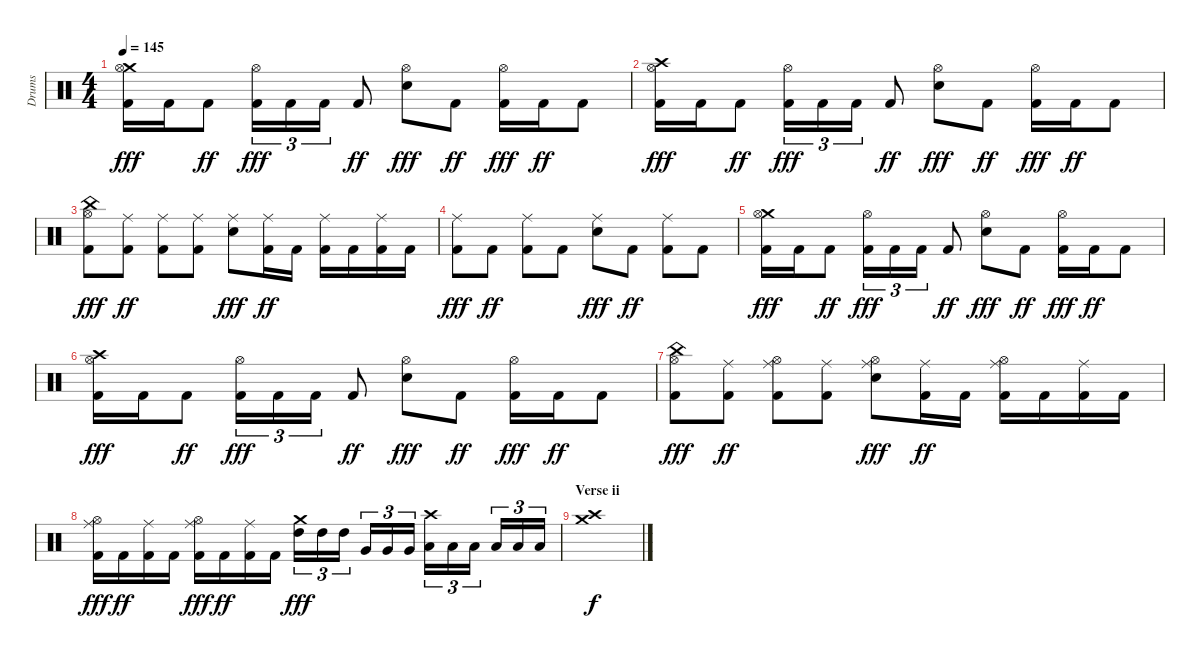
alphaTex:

\track ("Drums" "Drums") {instrument percussion}
\staff {score}
\articulation defaults
\ts (4 4)
\tempo 145
\clef neutral
\ks c
("Crash medium (hit)" "Hi-Hat (open)" "Kick (hit) 2").16{dy fff} "Kick (hit) 2".16 "Kick (hit) 2".8{dy ff} ("Hi-Hat (open)" "Kick (hit) 2").16{tu (3 2) dy fff} "Kick (hit) 2".16{tu (3 2)} "Kick (hit) 2".16{tu (3 2)} "Kick (hit) 2".8{dy ff} ("Hi-Hat (open)" "Snare (hit) 2").8{dy fff} "Kick (hit) 2".8{dy ff} ("Hi-Hat (open)" "Kick (hit) 2").16{dy fff} "Kick (hit) 2".16{dy ff} "Kick (hit) 2".8 |
("Crash high (hit)" "Hi-Hat (open)" "Kick (hit) 2").16{dy fff} "Kick (hit) 2".16 "Kick (hit) 2".8{dy ff} ("Hi-Hat (open)" "Kick (hit) 2").16{tu (3 2) dy fff} "Kick (hit) 2".16{tu (3 2)} "Kick (hit) 2".16{tu (3 2)} "Kick (hit) 2".8{dy ff} ("Hi-Hat (open)" "Snare (hit) 2").8{dy fff} "Kick (hit) 2".8{dy ff} ("Hi-Hat (open)" "Kick (hit) 2").16{dy fff} "Kick (hit) 2".16{dy ff} "Kick (hit) 2".8 |
("China (hit)" "Hi-Hat (open)" "Kick (hit) 2").8{dy fff} ("Ride (middle)" "Kick (hit) 2").8{dy ff} ("Ride (middle)" "Kick (hit) 2").8 ("Ride (middle)" "Kick (hit) 2").8 ("Ride (middle)" "Snare (hit) 2").8{dy fff} ("Ride (middle)" "Kick (hit) 2").16{dy ff} "Kick (hit) 2".16 ("Ride (middle)" "Kick (hit) 2").16 "Kick (hit) 2".16 ("Ride (middle)" "Kick (hit) 2").16 "Kick (hit) 2".16 |
("Ride (middle)" "Kick (hit) 2").8{dy fff} "Kick (hit) 2".8{dy ff} ("Ride (middle)" "Kick (hit) 2").8 "Kick (hit) 2".8 ("Ride (middle)" "Snare (hit) 2").8{dy fff} "Kick (hit) 2".8{dy ff} ("Ride (middle)" "Kick (hit) 2").8 "Kick (hit) 2".8 |
("Crash medium (hit)" "Hi-Hat (open)" "Kick (hit) 2").16{dy fff} "Kick (hit) 2".16 "Kick (hit) 2".8{dy ff} ("Hi-Hat (open)" "Kick (hit) 2").16{tu (3 2) dy fff} "Kick (hit) 2".16{tu (3 2)} "Kick (hit) 2".16{tu (3 2)} "Kick (hit) 2".8{dy ff} ("Hi-Hat (open)" "Snare (hit) 2").8{dy fff} "Kick (hit) 2".8{dy ff} ("Hi-Hat (open)" "Kick (hit) 2").16{dy fff} "Kick (hit) 2".16{dy ff} "Kick (hit) 2".8 |
("Crash high (hit)" "Hi-Hat (open)" "Kick (hit) 2").16{dy fff} "Kick (hit) 2".16 "Kick (hit) 2".8{dy ff} ("Hi-Hat (open)" "Kick (hit) 2").16{tu (3 2) dy fff} "Kick (hit) 2".16{tu (3 2)} "Kick (hit) 2".16{tu (3 2)} "Kick (hit) 2".8{dy ff} ("Hi-Hat (open)" "Snare (hit) 2").8{dy fff} "Kick (hit) 2".8{dy ff} ("Hi-Hat (open)" "Kick (hit) 2").16{dy fff} "Kick (hit) 2".16{dy ff} "Kick (hit) 2".8 |
("China (hit)" "Hi-Hat (open)" "Kick (hit) 2").8{dy fff} ("Ride (middle)" "Kick (hit) 2").8{dy ff} ("Ride (middle)" "Hi-Hat (open)" "Kick (hit) 2").8 ("Ride (middle)" "Kick (hit) 2").8 ("Ride (middle)" "Hi-Hat (open)" "Snare (hit) 2").8{dy fff} ("Ride (middle)" "Kick (hit) 2").16{dy ff} "Kick (hit) 2".16 ("Ride (middle)" "Hi-Hat (open)" "Kick (hit) 2").16 "Kick (hit) 2".16 ("Ride (middle)" "Kick (hit) 2").16 "Kick (hit) 2".16 |
("Ride (middle)" "Hi-Hat (open)" "Kick (hit) 2").16{dy fff} "Kick (hit) 2".16{dy ff} ("Ride (middle)" "Kick (hit) 2").16 "Kick (hit) 2".16 ("Ride (middle)" "Hi-Hat (open)" "Kick (hit) 2").16{dy fff} "Kick (hit) 2".16{dy ff} ("Ride (middle)" "Kick (hit) 2").16 "Kick (hit) 2".16 ("Crash medium (hit)" "High Tom (hit)").16{tu (3 2) dy fff} "High Tom (hit)".16{tu (3 2)} "High Tom (hit)".16{tu (3 2)} "Very Low Tom (hit)".16{tu (3 2)} "Very Low Tom (hit)".16{tu (3 2)} "Very Low Tom (hit)".16{tu (3 2)} ("Crash high (hit)" "Low Tom (hit)").16{tu (3 2)} "Low Tom (hit)".16{tu (3 2)} "Low Tom (hit)".16{tu (3 2)} "Low Floor Tom (hit)".16{tu (3 2)} "Low Floor Tom (hit)".16{tu (3 2)} "Low Floor Tom (hit)".16{tu (3 2)} |
\section ("" "Verse ii")
("Crash high (hit)" "Crash medium (hit)").1{dy f}
